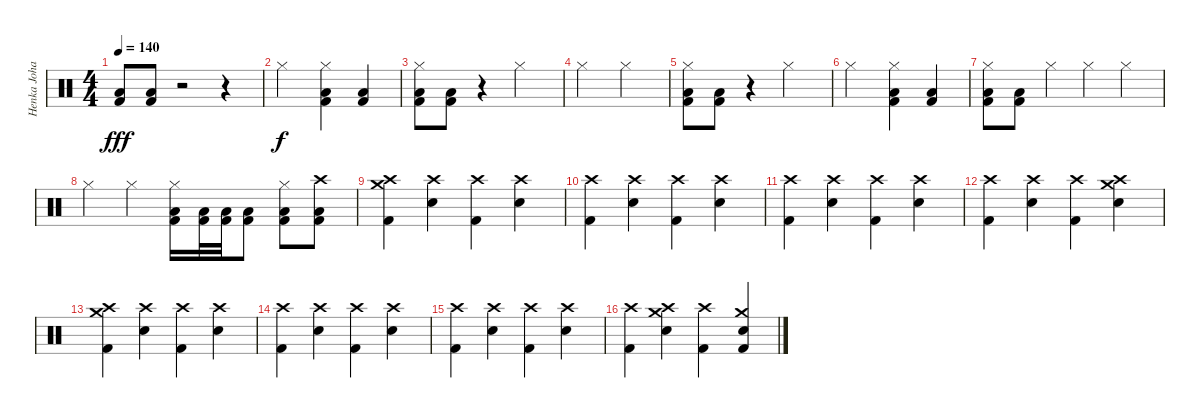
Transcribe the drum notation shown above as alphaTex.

\track ("Henka Johannson " "Henka Joha") {instrument percussion}
\staff {score}
\articulation defaults
\ts (4 4)
\tempo 140
\clef neutral
\ks c
("Low Tom (hit)" "Kick (hit) 2").8{dy fff} ("Low Tom (hit)" "Kick (hit) 2").8 r.2 r.4 |
"Hi-Hat (closed)".2{dy f} ("Hi-Hat (closed)" "Low Tom (hit)" "Kick (hit) 2").4 ("Low Tom (hit)" "Kick (hit) 2").4 |
("Hi-Hat (closed)" "Low Tom (hit)" "Kick (hit) 2").8 ("Low Tom (hit)" "Kick (hit) 2").8 r.4 "Hi-Hat (closed)".2 |
"Hi-Hat (closed)".2 "Hi-Hat (closed)".2 |
("Hi-Hat (closed)" "Low Tom (hit)" "Kick (hit) 2").8 ("Low Tom (hit)" "Kick (hit) 2").8 r.4 "Hi-Hat (closed)".2 |
"Hi-Hat (closed)".2 ("Hi-Hat (closed)" "Low Tom (hit)" "Kick (hit) 2").4 ("Low Tom (hit)" "Kick (hit) 2").4 |
("Hi-Hat (closed)" "Low Tom (hit)" "Kick (hit) 2").8 ("Low Tom (hit)" "Kick (hit) 2").8 "Hi-Hat (closed)".4 "Hi-Hat (closed)".4 "Hi-Hat (closed)".4 |
"Hi-Hat (closed)".4 "Hi-Hat (closed)".4 ("Hi-Hat (closed)" "Low Tom (hit)" "Kick (hit) 2").16 ("Low Tom (hit)" "Kick (hit) 2").32 ("Low Tom (hit)" "Kick (hit) 2").32 ("Low Tom (hit)" "Kick (hit) 2").8 ("Hi-Hat (closed)" "Low Tom (hit)" "Kick (hit) 2").8 ("Crash high (hit)" "Low Tom (hit)" "Kick (hit) 2").8 |
("Crash medium (hit)" "Crash high (hit)" "Kick (hit) 2").4 ("Crash high (hit)" "Electric Snare (hit)").4 ("Crash high (hit)" "Kick (hit) 2").4 ("Crash high (hit)" "Electric Snare (hit)").4 |
("Crash high (hit)" "Kick (hit) 2").4 ("Crash high (hit)" "Electric Snare (hit)").4 ("Crash high (hit)" "Kick (hit) 2").4 ("Crash high (hit)" "Electric Snare (hit)").4 |
("Crash high (hit)" "Kick (hit) 2").4 ("Crash high (hit)" "Electric Snare (hit)").4 ("Crash high (hit)" "Kick (hit) 2").4 ("Crash high (hit)" "Electric Snare (hit)").4 |
("Crash high (hit)" "Kick (hit) 2").4 ("Crash high (hit)" "Electric Snare (hit)").4 ("Crash high (hit)" "Kick (hit) 2").4 ("Crash medium (hit)" "Crash high (hit)" "Electric Snare (hit)").4 |
("Crash medium (hit)" "Crash high (hit)" "Kick (hit) 2").4 ("Crash high (hit)" "Electric Snare (hit)").4 ("Crash high (hit)" "Kick (hit) 2").4 ("Crash high (hit)" "Electric Snare (hit)").4 |
("Crash high (hit)" "Kick (hit) 2").4 ("Crash high (hit)" "Electric Snare (hit)").4 ("Crash high (hit)" "Kick (hit) 2").4 ("Crash high (hit)" "Electric Snare (hit)").4 |
("Crash high (hit)" "Kick (hit) 2").4 ("Crash high (hit)" "Electric Snare (hit)").4 ("Crash high (hit)" "Kick (hit) 2").4 ("Crash high (hit)" "Electric Snare (hit)").4 |
("Crash high (hit)" "Kick (hit) 2").4 ("Crash medium (hit)" "Crash high (hit)" "Electric Snare (hit)").4 ("Crash high (hit)" "Kick (hit) 2").4 ("Crash medium (hit)" "Electric Snare (hit)" "Kick (hit) 2").4
